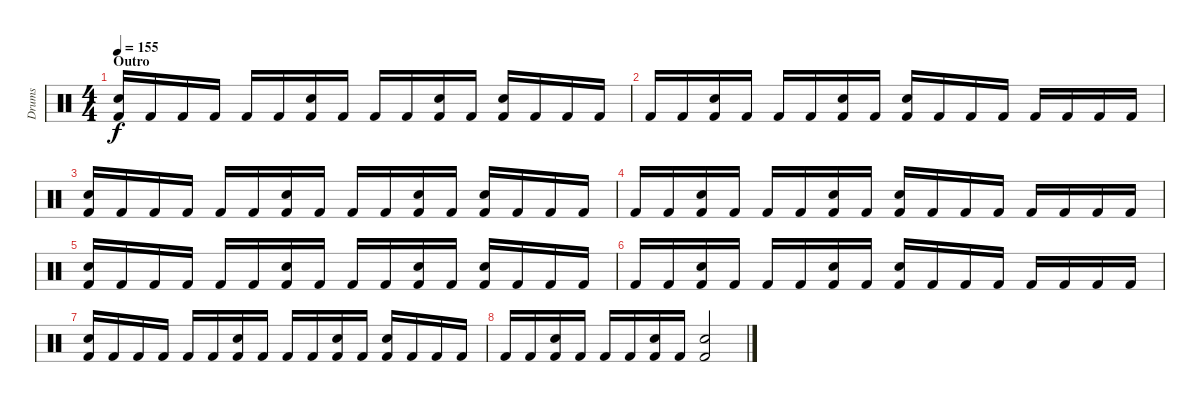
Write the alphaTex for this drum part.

\track ("Drums" "Drums") {instrument percussion}
\staff {score}
\articulation defaults
\ts (4 4)
\section ("" "Outro")
\tempo 155
\clef neutral
\ks c
("Snare (hit) 2" "Kick (hit) 2").16{dy f} "Kick (hit) 2".16 "Kick (hit) 2".16 "Kick (hit) 2".16 "Kick (hit) 2".16 "Kick (hit) 2".16 ("Snare (hit) 2" "Kick (hit) 2").16 "Kick (hit) 2".16 "Kick (hit) 2".16 "Kick (hit) 2".16 ("Snare (hit) 2" "Kick (hit) 2").16 "Kick (hit) 2".16 ("Snare (hit) 2" "Kick (hit) 2").16 "Kick (hit) 2".16 "Kick (hit) 2".16 "Kick (hit) 2".16 |
"Kick (hit) 2".16 "Kick (hit) 2".16 ("Snare (hit) 2" "Kick (hit) 2").16 "Kick (hit) 2".16 "Kick (hit) 2".16 "Kick (hit) 2".16 ("Snare (hit) 2" "Kick (hit) 2").16 "Kick (hit) 2".16 ("Snare (hit) 2" "Kick (hit) 2").16 "Kick (hit) 2".16 "Kick (hit) 2".16 "Kick (hit) 2".16 "Kick (hit) 2".16 "Kick (hit) 2".16 "Kick (hit) 2".16 "Kick (hit) 2".16 |
("Snare (hit) 2" "Kick (hit) 2").16 "Kick (hit) 2".16 "Kick (hit) 2".16 "Kick (hit) 2".16 "Kick (hit) 2".16 "Kick (hit) 2".16 ("Snare (hit) 2" "Kick (hit) 2").16 "Kick (hit) 2".16 "Kick (hit) 2".16 "Kick (hit) 2".16 ("Snare (hit) 2" "Kick (hit) 2").16 "Kick (hit) 2".16 ("Snare (hit) 2" "Kick (hit) 2").16 "Kick (hit) 2".16 "Kick (hit) 2".16 "Kick (hit) 2".16 |
"Kick (hit) 2".16 "Kick (hit) 2".16 ("Snare (hit) 2" "Kick (hit) 2").16 "Kick (hit) 2".16 "Kick (hit) 2".16 "Kick (hit) 2".16 ("Snare (hit) 2" "Kick (hit) 2").16 "Kick (hit) 2".16 ("Snare (hit) 2" "Kick (hit) 2").16 "Kick (hit) 2".16 "Kick (hit) 2".16 "Kick (hit) 2".16 "Kick (hit) 2".16 "Kick (hit) 2".16 "Kick (hit) 2".16 "Kick (hit) 2".16 |
("Snare (hit) 2" "Kick (hit) 2").16 "Kick (hit) 2".16 "Kick (hit) 2".16 "Kick (hit) 2".16 "Kick (hit) 2".16 "Kick (hit) 2".16 ("Snare (hit) 2" "Kick (hit) 2").16 "Kick (hit) 2".16 "Kick (hit) 2".16 "Kick (hit) 2".16 ("Snare (hit) 2" "Kick (hit) 2").16 "Kick (hit) 2".16 ("Snare (hit) 2" "Kick (hit) 2").16 "Kick (hit) 2".16 "Kick (hit) 2".16 "Kick (hit) 2".16 |
"Kick (hit) 2".16 "Kick (hit) 2".16 ("Snare (hit) 2" "Kick (hit) 2").16 "Kick (hit) 2".16 "Kick (hit) 2".16 "Kick (hit) 2".16 ("Snare (hit) 2" "Kick (hit) 2").16 "Kick (hit) 2".16 ("Snare (hit) 2" "Kick (hit) 2").16 "Kick (hit) 2".16 "Kick (hit) 2".16 "Kick (hit) 2".16 "Kick (hit) 2".16 "Kick (hit) 2".16 "Kick (hit) 2".16 "Kick (hit) 2".16 |
("Snare (hit) 2" "Kick (hit) 2").16 "Kick (hit) 2".16 "Kick (hit) 2".16 "Kick (hit) 2".16 "Kick (hit) 2".16 "Kick (hit) 2".16 ("Snare (hit) 2" "Kick (hit) 2").16 "Kick (hit) 2".16 "Kick (hit) 2".16 "Kick (hit) 2".16 ("Snare (hit) 2" "Kick (hit) 2").16 "Kick (hit) 2".16 ("Snare (hit) 2" "Kick (hit) 2").16 "Kick (hit) 2".16 "Kick (hit) 2".16 "Kick (hit) 2".16 |
"Kick (hit) 2".16 "Kick (hit) 2".16 ("Snare (hit) 2" "Kick (hit) 2").16 "Kick (hit) 2".16 "Kick (hit) 2".16 "Kick (hit) 2".16 ("Snare (hit) 2" "Kick (hit) 2").16 "Kick (hit) 2".16 ("Snare (hit) 2" "Kick (hit) 2").2
